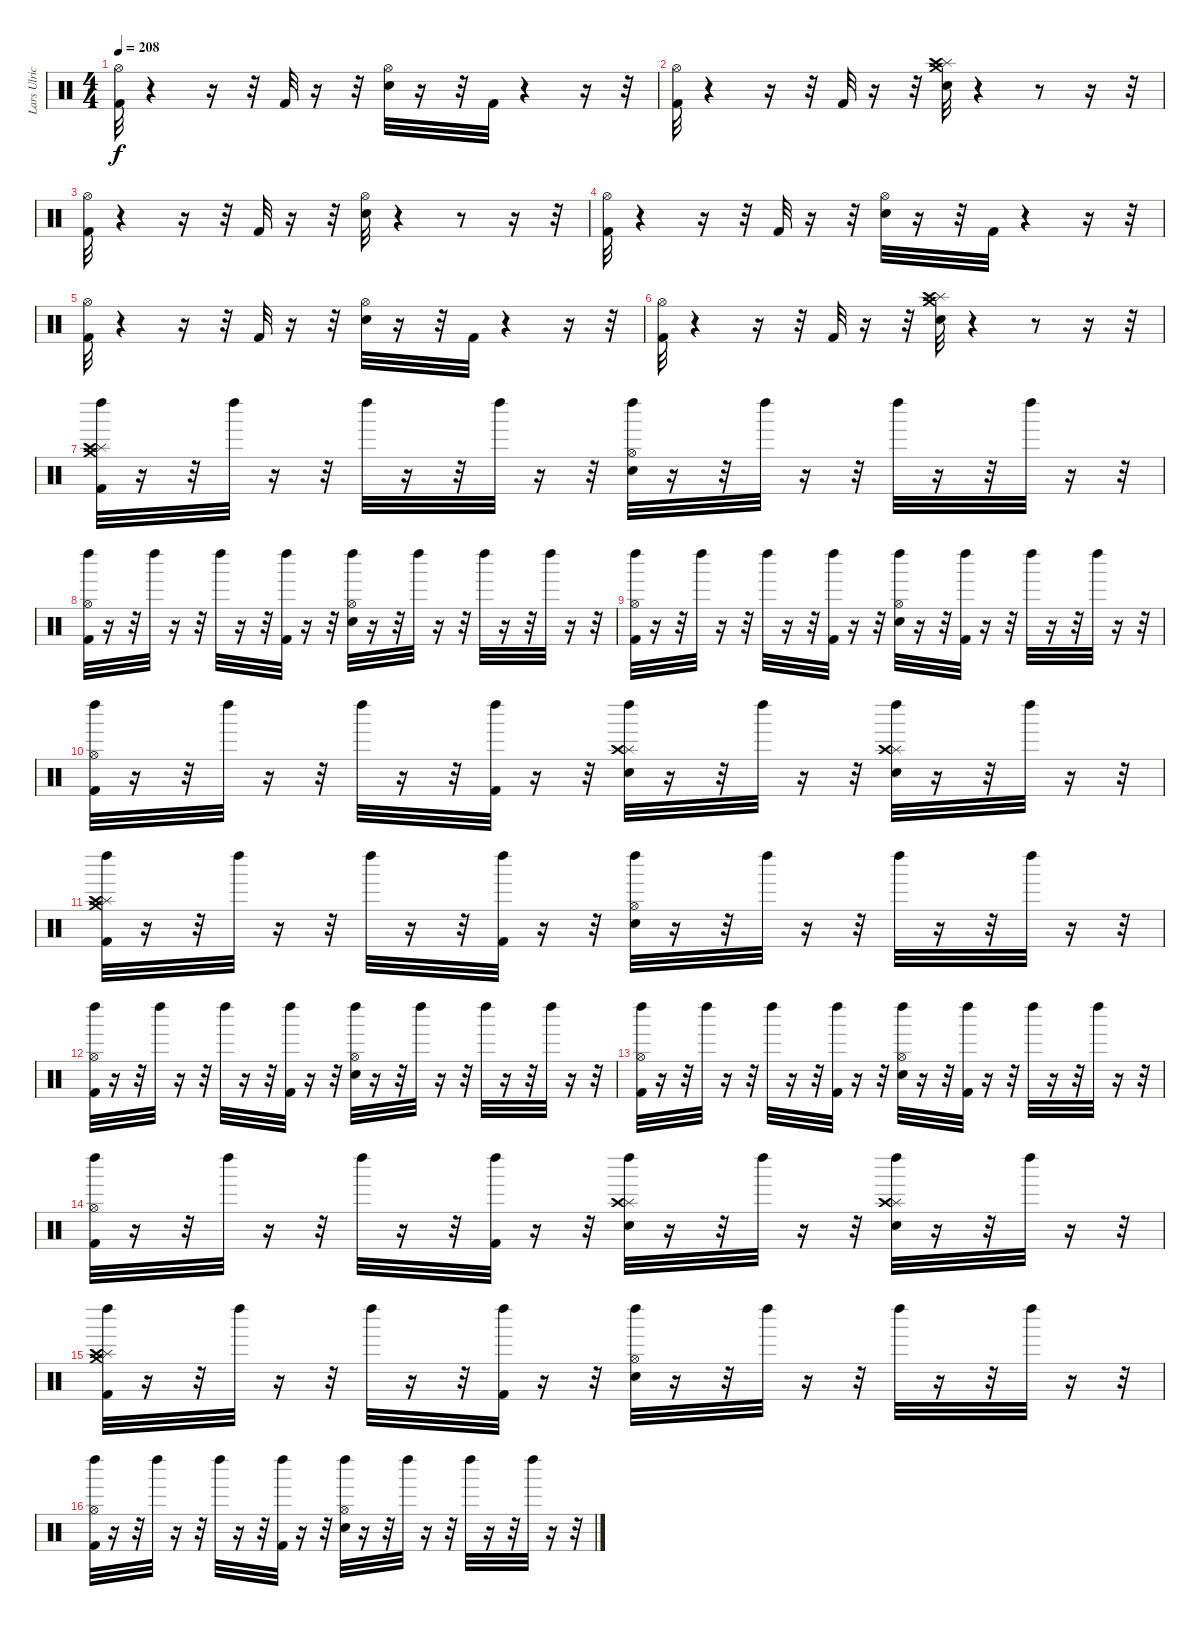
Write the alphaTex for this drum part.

\track ("Lars Ulrich (Drums)" "Lars Ulric") {instrument percussion}
\staff {score}
\articulation defaults
\ts (4 4)
\tempo 208
\clef neutral
\ks c
("Kick (hit) 2" "Hi-Hat (open)").32{dy f} r.4 r.16 r.32 "Kick (hit) 2".32 r.16 r.32 ("Snare (hit) 2" "Hi-Hat (open)").32 r.16 r.32 "Kick (hit) 2".32 r.4 r.16 r.32 |
("Kick (hit) 2" "Hi-Hat (open)").32 r.4 r.16 r.32 "Kick (hit) 2".32 r.16 r.32 ("Splash (hit)" "Crash medium (hit)" "Crash high (hit)" "Snare (hit) 2").32 r.4 r.8 r.16 r.32 |
("Kick (hit) 2" "Hi-Hat (open)").32 r.4 r.16 r.32 "Kick (hit) 2".32 r.16 r.32 ("Snare (hit) 2" "Hi-Hat (open)").32 r.4 r.8 r.16 r.32 |
("Kick (hit) 2" "Hi-Hat (open)").32 r.4 r.16 r.32 "Kick (hit) 2".32 r.16 r.32 ("Snare (hit) 2" "Hi-Hat (open)").32 r.16 r.32 "Kick (hit) 2".32 r.4 r.16 r.32 |
("Kick (hit) 2" "Hi-Hat (open)").32 r.4 r.16 r.32 "Kick (hit) 2".32 r.16 r.32 ("Snare (hit) 2" "Hi-Hat (open)").32 r.16 r.32 "Kick (hit) 2".32 r.4 r.16 r.32 |
("Kick (hit) 2" "Hi-Hat (open)").32 r.4 r.16 r.32 "Kick (hit) 2".32 r.16 r.32 ("Splash (hit)" "Crash medium (hit)" "Crash high (hit)" "Snare (hit) 2").32 r.4 r.8 r.16 r.32 |
("Left Maraca (hit)" "Crash medium (hit)" "Splash (hit)" "Crash high (hit)" "Kick (hit) 2").32 r.16 r.32 "Left Maraca (hit)".32 r.16 r.32 "Left Maraca (hit)".32 r.16 r.32 "Left Maraca (hit)".32 r.16 r.32 ("Left Maraca (hit)" "Hi-Hat (open)" "Snare (hit) 2").32 r.16 r.32 "Left Maraca (hit)".32 r.16 r.32 "Left Maraca (hit)".32 r.16 r.32 "Left Maraca (hit)".32 r.16 r.32 |
("Left Maraca (hit)" "Hi-Hat (open)" "Kick (hit) 2").32 r.16 r.32 "Left Maraca (hit)".32 r.16 r.32 "Left Maraca (hit)".32 r.16 r.32 ("Left Maraca (hit)" "Kick (hit) 2").32 r.16 r.32 ("Left Maraca (hit)" "Hi-Hat (open)" "Snare (hit) 2").32 r.16 r.32 "Left Maraca (hit)".32 r.16 r.32 "Left Maraca (hit)".32 r.16 r.32 "Left Maraca (hit)".32 r.16 r.32 |
("Left Maraca (hit)" "Hi-Hat (open)" "Kick (hit) 2").32 r.16 r.32 "Left Maraca (hit)".32 r.16 r.32 "Left Maraca (hit)".32 r.16 r.32 ("Left Maraca (hit)" "Kick (hit) 2").32 r.16 r.32 ("Left Maraca (hit)" "Hi-Hat (open)" "Snare (hit) 2").32 r.16 r.32 ("Kick (hit) 2" "Left Maraca (hit)").32 r.16 r.32 "Left Maraca (hit)".32 r.16 r.32 "Left Maraca (hit)".32 r.16 r.32 |
("Left Maraca (hit)" "Hi-Hat (open)" "Kick (hit) 2").32 r.16 r.32 "Left Maraca (hit)".32 r.16 r.32 "Left Maraca (hit)".32 r.16 r.32 ("Left Maraca (hit)" "Kick (hit) 2").32 r.16 r.32 ("Splash (hit)" "Crash high (hit)" "Left Maraca (hit)" "Snare (hit) 2").32 r.16 r.32 "Left Maraca (hit)".32 r.16 r.32 ("Splash (hit)" "Crash high (hit)" "Snare (hit) 2" "Left Maraca (hit)").32 r.16 r.32 "Left Maraca (hit)".32 r.16 r.32 |
("Left Maraca (hit)" "Crash medium (hit)" "Splash (hit)" "Crash high (hit)" "Kick (hit) 2").32 r.16 r.32 "Left Maraca (hit)".32 r.16 r.32 "Left Maraca (hit)".32 r.16 r.32 ("Kick (hit) 2" "Left Maraca (hit)").32 r.16 r.32 ("Left Maraca (hit)" "Hi-Hat (open)" "Snare (hit) 2").32 r.16 r.32 "Left Maraca (hit)".32 r.16 r.32 "Left Maraca (hit)".32 r.16 r.32 "Left Maraca (hit)".32 r.16 r.32 |
("Left Maraca (hit)" "Hi-Hat (open)" "Kick (hit) 2").32 r.16 r.32 "Left Maraca (hit)".32 r.16 r.32 "Left Maraca (hit)".32 r.16 r.32 ("Left Maraca (hit)" "Kick (hit) 2").32 r.16 r.32 ("Left Maraca (hit)" "Hi-Hat (open)" "Snare (hit) 2").32 r.16 r.32 "Left Maraca (hit)".32 r.16 r.32 "Left Maraca (hit)".32 r.16 r.32 "Left Maraca (hit)".32 r.16 r.32 |
("Left Maraca (hit)" "Hi-Hat (open)" "Kick (hit) 2").32 r.16 r.32 "Left Maraca (hit)".32 r.16 r.32 "Left Maraca (hit)".32 r.16 r.32 ("Left Maraca (hit)" "Kick (hit) 2").32 r.16 r.32 ("Left Maraca (hit)" "Hi-Hat (open)" "Snare (hit) 2").32 r.16 r.32 ("Kick (hit) 2" "Left Maraca (hit)").32 r.16 r.32 "Left Maraca (hit)".32 r.16 r.32 "Left Maraca (hit)".32 r.16 r.32 |
("Left Maraca (hit)" "Hi-Hat (open)" "Kick (hit) 2").32 r.16 r.32 "Left Maraca (hit)".32 r.16 r.32 "Left Maraca (hit)".32 r.16 r.32 ("Left Maraca (hit)" "Kick (hit) 2").32 r.16 r.32 ("Splash (hit)" "Crash high (hit)" "Left Maraca (hit)" "Snare (hit) 2").32 r.16 r.32 "Left Maraca (hit)".32 r.16 r.32 ("Splash (hit)" "Crash high (hit)" "Snare (hit) 2" "Left Maraca (hit)").32 r.16 r.32 "Left Maraca (hit)".32 r.16 r.32 |
("Left Maraca (hit)" "Crash medium (hit)" "Splash (hit)" "Crash high (hit)" "Kick (hit) 2").32 r.16 r.32 "Left Maraca (hit)".32 r.16 r.32 "Left Maraca (hit)".32 r.16 r.32 ("Kick (hit) 2" "Left Maraca (hit)").32 r.16 r.32 ("Left Maraca (hit)" "Hi-Hat (open)" "Snare (hit) 2").32 r.16 r.32 "Left Maraca (hit)".32 r.16 r.32 "Left Maraca (hit)".32 r.16 r.32 "Left Maraca (hit)".32 r.16 r.32 |
("Left Maraca (hit)" "Hi-Hat (open)" "Kick (hit) 2").32 r.16 r.32 "Left Maraca (hit)".32 r.16 r.32 "Left Maraca (hit)".32 r.16 r.32 ("Left Maraca (hit)" "Kick (hit) 2").32 r.16 r.32 ("Left Maraca (hit)" "Hi-Hat (open)" "Snare (hit) 2").32 r.16 r.32 "Left Maraca (hit)".32 r.16 r.32 "Left Maraca (hit)".32 r.16 r.32 "Left Maraca (hit)".32 r.16 r.32
